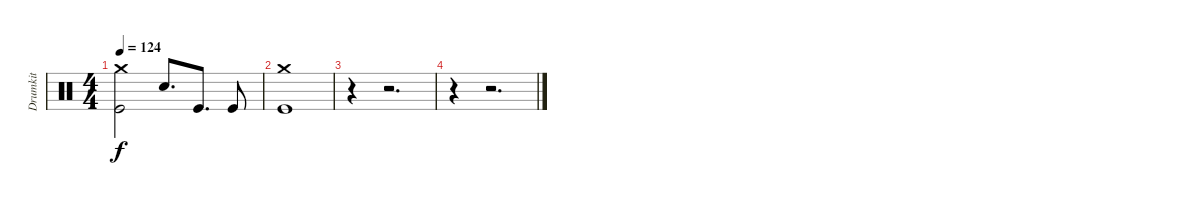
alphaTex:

\track ("Drumkit" "Drumkit") {instrument percussion}
\staff {score}
\articulation defaults
\ts (4 4)
\tempo 124
\clef neutral
\ks c
("Kick (hit)" "Crash medium (hit)").2{dy f} "Snare (hit) 2".8{d} "Kick (hit)".8{d} "Kick (hit)".8 |
("Kick (hit)" "Crash medium (hit)").1 |
r.4 r.2{d} |
r.4 r.2{d}
